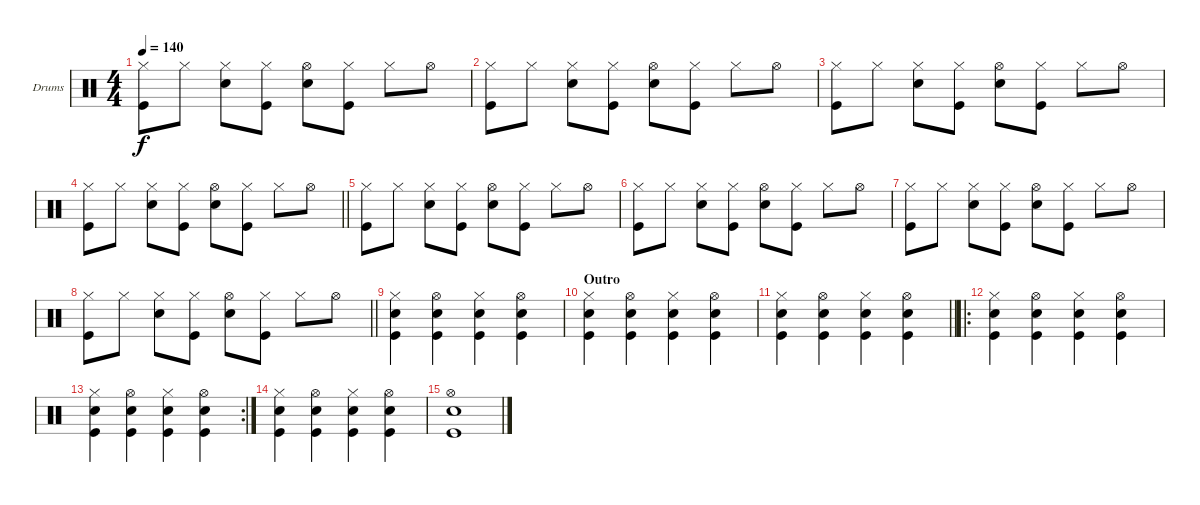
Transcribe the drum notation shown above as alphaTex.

\bracketExtendMode groupsimilarinstruments
\firstSystemTrackNameOrientation horizontal
\otherSystemsTrackNameOrientation horizontal
\track ("Drumkit" "Drums") {instrument percussion}
\staff {score}
\articulation defaults
\ts (4 4)
\tempo 140
\clef neutral
\ks c
("Hi-Hat (closed)" "Kick (hit)").8{dy f} "Hi-Hat (closed)".8 ("Hi-Hat (closed)" "Snare (hit) 2").8 ("Hi-Hat (closed)" "Kick (hit)").8 ("Hi-Hat (open)" "Snare (hit) 2").8 ("Hi-Hat (closed)" "Kick (hit)").8 "Hi-Hat (closed)".8 "Hi-Hat (open)".8 |
("Hi-Hat (closed)" "Kick (hit)").8 "Hi-Hat (closed)".8 ("Hi-Hat (closed)" "Snare (hit) 2").8 ("Hi-Hat (closed)" "Kick (hit)").8 ("Hi-Hat (open)" "Snare (hit) 2").8 ("Hi-Hat (closed)" "Kick (hit)").8 "Hi-Hat (closed)".8 "Hi-Hat (open)".8 |
("Hi-Hat (closed)" "Kick (hit)").8 "Hi-Hat (closed)".8 ("Hi-Hat (closed)" "Snare (hit) 2").8 ("Hi-Hat (closed)" "Kick (hit)").8 ("Hi-Hat (open)" "Snare (hit) 2").8 ("Hi-Hat (closed)" "Kick (hit)").8 "Hi-Hat (closed)".8 "Hi-Hat (open)".8 |
\barLineRight lightlight
("Hi-Hat (closed)" "Kick (hit)").8 "Hi-Hat (closed)".8 ("Hi-Hat (closed)" "Snare (hit) 2").8 ("Hi-Hat (closed)" "Kick (hit)").8 ("Hi-Hat (open)" "Snare (hit) 2").8 ("Hi-Hat (closed)" "Kick (hit)").8 "Hi-Hat (closed)".8 "Hi-Hat (open)".8 |
("Hi-Hat (closed)" "Kick (hit)").8 "Hi-Hat (closed)".8 ("Hi-Hat (closed)" "Snare (hit) 2").8 ("Hi-Hat (closed)" "Kick (hit)").8 ("Hi-Hat (open)" "Snare (hit) 2").8 ("Hi-Hat (closed)" "Kick (hit)").8 "Hi-Hat (closed)".8 "Hi-Hat (open)".8 |
("Hi-Hat (closed)" "Kick (hit)").8 "Hi-Hat (closed)".8 ("Hi-Hat (closed)" "Snare (hit) 2").8 ("Hi-Hat (closed)" "Kick (hit)").8 ("Hi-Hat (open)" "Snare (hit) 2").8 ("Hi-Hat (closed)" "Kick (hit)").8 "Hi-Hat (closed)".8 "Hi-Hat (open)".8 |
("Hi-Hat (closed)" "Kick (hit)").8 "Hi-Hat (closed)".8 ("Hi-Hat (closed)" "Snare (hit) 2").8 ("Hi-Hat (closed)" "Kick (hit)").8 ("Hi-Hat (open)" "Snare (hit) 2").8 ("Hi-Hat (closed)" "Kick (hit)").8 "Hi-Hat (closed)".8 "Hi-Hat (open)".8 |
\barLineRight lightlight
("Hi-Hat (closed)" "Kick (hit)").8 "Hi-Hat (closed)".8 ("Hi-Hat (closed)" "Snare (hit) 2").8 ("Hi-Hat (closed)" "Kick (hit)").8 ("Hi-Hat (open)" "Snare (hit) 2").8 ("Hi-Hat (closed)" "Kick (hit)").8 "Hi-Hat (closed)".8 "Hi-Hat (open)".8 |
("Hi-Hat (closed)" "Snare (hit) 2" "Kick (hit)").4 ("Hi-Hat (open)" "Snare (hit) 2" "Kick (hit)").4 ("Hi-Hat (closed)" "Snare (hit) 2" "Kick (hit)").4 ("Hi-Hat (open)" "Snare (hit) 2" "Kick (hit)").4 |
\section ("" "Outro")
("Hi-Hat (closed)" "Snare (hit) 2" "Kick (hit)").4 ("Hi-Hat (open)" "Snare (hit) 2" "Kick (hit)").4 ("Hi-Hat (closed)" "Snare (hit) 2" "Kick (hit)").4 ("Hi-Hat (open)" "Snare (hit) 2" "Kick (hit)").4 |
\barLineRight lightlight
("Hi-Hat (closed)" "Snare (hit) 2" "Kick (hit)").4 ("Hi-Hat (open)" "Snare (hit) 2" "Kick (hit)").4 ("Hi-Hat (closed)" "Snare (hit) 2" "Kick (hit)").4 ("Hi-Hat (open)" "Snare (hit) 2" "Kick (hit)").4 |
\ro
("Hi-Hat (closed)" "Snare (hit) 2" "Kick (hit)").4 ("Hi-Hat (open)" "Snare (hit) 2" "Kick (hit)").4 ("Hi-Hat (closed)" "Snare (hit) 2" "Kick (hit)").4 ("Hi-Hat (open)" "Snare (hit) 2" "Kick (hit)").4 |
\rc 2
("Hi-Hat (closed)" "Snare (hit) 2" "Kick (hit)").4 ("Hi-Hat (open)" "Snare (hit) 2" "Kick (hit)").4 ("Hi-Hat (closed)" "Snare (hit) 2" "Kick (hit)").4 ("Hi-Hat (open)" "Snare (hit) 2" "Kick (hit)").4 |
("Hi-Hat (closed)" "Snare (hit) 2" "Kick (hit)").4 ("Hi-Hat (open)" "Snare (hit) 2" "Kick (hit)").4 ("Hi-Hat (closed)" "Snare (hit) 2" "Kick (hit)").4 ("Hi-Hat (open)" "Snare (hit) 2" "Kick (hit)").4 |
("Hi-Hat (open)" "Snare (hit) 2" "Kick (hit)").1
